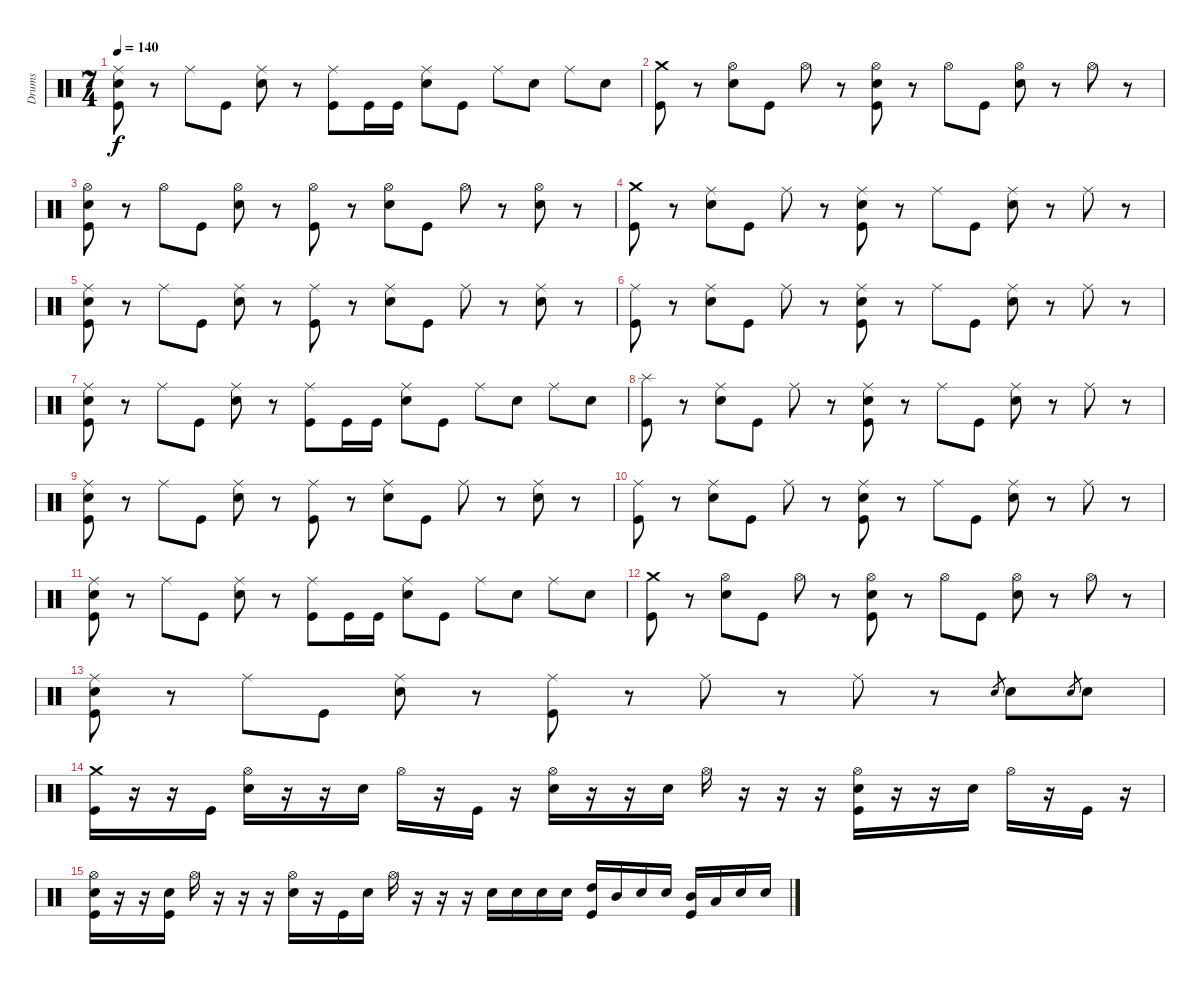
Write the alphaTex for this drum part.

\track ("Drums" "Drums") {instrument percussion}
\staff {score}
\articulation defaults
\ts (7 4)
\tempo 140
\clef neutral
\ks c
("Ride (middle)" "Electric Snare (hit)" "Kick (hit)").8{dy f} r.8 "Ride (middle)".8 "Kick (hit)".8 ("Ride (middle)" "Electric Snare (hit)").8 r.8 ("Ride (middle)" "Kick (hit)").8 "Kick (hit)".16 "Kick (hit)".16 ("Ride (middle)" "Electric Snare (hit)").8 "Kick (hit)".8 "Ride (middle)".8 "Electric Snare (hit)".8 "Ride (middle)".8 "Electric Snare (hit)".8 |
("Crash medium (hit)" "Kick (hit)").8 r.8 ("Hi-Hat (open)" "Electric Snare (hit)").8 "Kick (hit)".8 "Hi-Hat (open)".8 r.8 ("Hi-Hat (open)" "Electric Snare (hit)" "Kick (hit)").8 r.8 "Hi-Hat (open)".8 "Kick (hit)".8 ("Hi-Hat (open)" "Electric Snare (hit)").8 r.8 "Hi-Hat (open)".8 r.8 |
("Hi-Hat (open)" "Electric Snare (hit)" "Kick (hit)").8 r.8 "Hi-Hat (open)".8 "Kick (hit)".8 ("Hi-Hat (open)" "Electric Snare (hit)").8 r.8 ("Hi-Hat (open)" "Kick (hit)").8 r.8 ("Hi-Hat (open)" "Electric Snare (hit)").8 "Kick (hit)".8 "Hi-Hat (open)".8 r.8 ("Hi-Hat (open)" "Electric Snare (hit)").8 r.8 |
("Crash medium (hit)" "Kick (hit)").8 r.8 ("Ride (middle)" "Electric Snare (hit)").8 "Kick (hit)".8 "Ride (middle)".8 r.8 ("Ride (middle)" "Electric Snare (hit)" "Kick (hit)").8 r.8 "Ride (middle)".8 "Kick (hit)".8 ("Ride (middle)" "Electric Snare (hit)").8 r.8 "Ride (middle)".8 r.8 |
("Ride (middle)" "Electric Snare (hit)" "Kick (hit)").8 r.8 "Ride (middle)".8 "Kick (hit)".8 ("Ride (middle)" "Electric Snare (hit)").8 r.8 ("Ride (middle)" "Kick (hit)").8 r.8 ("Ride (middle)" "Electric Snare (hit)").8 "Kick (hit)".8 "Ride (middle)".8 r.8 ("Ride (middle)" "Electric Snare (hit)").8 r.8 |
("Ride (middle)" "Kick (hit)").8 r.8 ("Ride (middle)" "Electric Snare (hit)").8 "Kick (hit)".8 "Ride (middle)".8 r.8 ("Ride (middle)" "Electric Snare (hit)" "Kick (hit)").8 r.8 "Ride (middle)".8 "Kick (hit)".8 ("Ride (middle)" "Electric Snare (hit)").8 r.8 "Ride (middle)".8 r.8 |
("Ride (middle)" "Electric Snare (hit)" "Kick (hit)").8 r.8 "Ride (middle)".8 "Kick (hit)".8 ("Ride (middle)" "Electric Snare (hit)").8 r.8 ("Ride (middle)" "Kick (hit)").8 "Kick (hit)".16 "Kick (hit)".16 ("Ride (middle)" "Electric Snare (hit)").8 "Kick (hit)".8 "Ride (middle)".8 "Electric Snare (hit)".8 "Ride (middle)".8 "Electric Snare (hit)".8 |
("Splash (hit)" "Kick (hit)").8 r.8 ("Ride (middle)" "Electric Snare (hit)").8 "Kick (hit)".8 "Ride (middle)".8 r.8 ("Ride (middle)" "Electric Snare (hit)" "Kick (hit)").8 r.8 "Ride (middle)".8 "Kick (hit)".8 ("Ride (middle)" "Electric Snare (hit)").8 r.8 "Ride (middle)".8 r.8 |
("Ride (middle)" "Electric Snare (hit)" "Kick (hit)").8 r.8 "Ride (middle)".8 "Kick (hit)".8 ("Ride (middle)" "Electric Snare (hit)").8 r.8 ("Ride (middle)" "Kick (hit)").8 r.8 ("Ride (middle)" "Electric Snare (hit)").8 "Kick (hit)".8 "Ride (middle)".8 r.8 ("Ride (middle)" "Electric Snare (hit)").8 r.8 |
("Ride (middle)" "Kick (hit)").8 r.8 ("Ride (middle)" "Electric Snare (hit)").8 "Kick (hit)".8 "Ride (middle)".8 r.8 ("Ride (middle)" "Electric Snare (hit)" "Kick (hit)").8 r.8 "Ride (middle)".8 "Kick (hit)".8 ("Ride (middle)" "Electric Snare (hit)").8 r.8 "Ride (middle)".8 r.8 |
("Ride (middle)" "Electric Snare (hit)" "Kick (hit)").8 r.8 "Ride (middle)".8 "Kick (hit)".8 ("Ride (middle)" "Electric Snare (hit)").8 r.8 ("Ride (middle)" "Kick (hit)").8 "Kick (hit)".16 "Kick (hit)".16 ("Ride (middle)" "Electric Snare (hit)").8 "Kick (hit)".8 "Ride (middle)".8 "Electric Snare (hit)".8 "Ride (middle)".8 "Electric Snare (hit)".8 |
("Crash medium (hit)" "Kick (hit)").8 r.8 ("Hi-Hat (open)" "Electric Snare (hit)").8 "Kick (hit)".8 "Hi-Hat (open)".8 r.8 ("Hi-Hat (open)" "Electric Snare (hit)" "Kick (hit)").8 r.8 "Hi-Hat (open)".8 "Kick (hit)".8 ("Hi-Hat (open)" "Electric Snare (hit)").8 r.8 "Hi-Hat (open)".8 r.8 |
("Ride (middle)" "Electric Snare (hit)" "Kick (hit)").8 r.8 "Ride (middle)".8 "Kick (hit)".8 ("Ride (middle)" "Electric Snare (hit)").8 r.8 ("Ride (middle)" "Kick (hit)").8 r.8 "Ride (middle)".8 r.8 "Ride (middle)".8 r.8 "Electric Snare (hit)".8{gr} "Electric Snare (hit)".8 "Electric Snare (hit)".8{gr} "Electric Snare (hit)".8 |
("Crash medium (hit)" "Kick (hit)").16 r.16 r.16 "Kick (hit)".16 ("Hi-Hat (open)" "Electric Snare (hit)").16 r.16 r.16 "Electric Snare (hit)".16 "Hi-Hat (open)".16 r.16 "Kick (hit)".16 r.16 ("Hi-Hat (open)" "Electric Snare (hit)").16 r.16 r.16 "Electric Snare (hit)".16 "Hi-Hat (open)".16 r.16 r.16 r.16 ("Hi-Hat (open)" "Electric Snare (hit)" "Kick (hit)").16 r.16 r.16 "Electric Snare (hit)".16 "Hi-Hat (open)".16 r.16 "Kick (hit)".16 r.16 |
("Hi-Hat (open)" "Electric Snare (hit)" "Kick (hit)").16 r.16 r.16 ("Electric Snare (hit)" "Kick (hit)").16 "Hi-Hat (open)".16 r.16 r.16 r.16 ("Hi-Hat (open)" "Electric Snare (hit)").16 r.16 "Kick (hit)".16 "Electric Snare (hit)".16 "Hi-Hat (open)".16 r.16 r.16 r.16 "Electric Snare (hit)".16 "Electric Snare (hit)".16 "Electric Snare (hit)".16 "Electric Snare (hit)".16 ("High Tom (hit)" "Kick (hit)").16 "Mid Tom (hit)".16 "Electric Snare (hit)".16 "Electric Snare (hit)".16 ("Mid Tom (hit)" "Kick (hit)").16 "Low Tom (hit)".16 "Electric Snare (hit)".16 "Electric Snare (hit)".16
